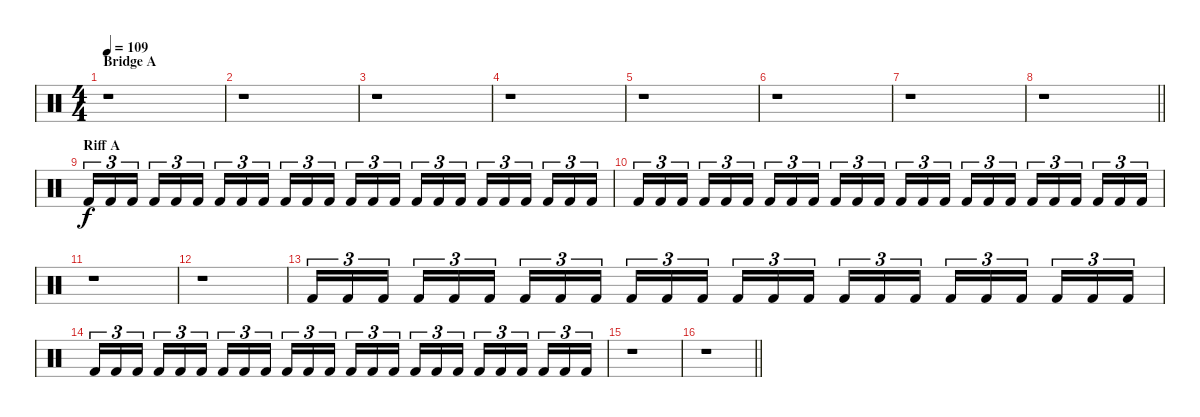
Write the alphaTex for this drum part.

\track "" {instrument percussion}
\staff {score}
\articulation defaults
\ts (4 4)
\section ("" "Bridge A")
\tempo 109
\clef neutral
\ks c
r.1{dy f} |
r.1 |
r.1 |
r.1 |
r.1 |
r.1 |
r.1 |
\barLineRight lightlight
r.1 |
\section ("" "Riff A")
"Kick (hit) 2".16{tu (3 2)} "Kick (hit) 2".16{tu (3 2)} "Kick (hit) 2".16{tu (3 2) beam splitsecondary} "Kick (hit) 2".16{tu (3 2)} "Kick (hit) 2".16{tu (3 2)} "Kick (hit) 2".16{tu (3 2)} "Kick (hit) 2".16{tu (3 2)} "Kick (hit) 2".16{tu (3 2)} "Kick (hit) 2".16{tu (3 2) beam splitsecondary} "Kick (hit) 2".16{tu (3 2)} "Kick (hit) 2".16{tu (3 2)} "Kick (hit) 2".16{tu (3 2)} "Kick (hit) 2".16{tu (3 2)} "Kick (hit) 2".16{tu (3 2)} "Kick (hit) 2".16{tu (3 2) beam splitsecondary} "Kick (hit) 2".16{tu (3 2)} "Kick (hit) 2".16{tu (3 2)} "Kick (hit) 2".16{tu (3 2)} "Kick (hit) 2".16{tu (3 2)} "Kick (hit) 2".16{tu (3 2)} "Kick (hit) 2".16{tu (3 2) beam splitsecondary} "Kick (hit) 2".16{tu (3 2)} "Kick (hit) 2".16{tu (3 2)} "Kick (hit) 2".16{tu (3 2)} |
"Kick (hit) 2".16{tu (3 2)} "Kick (hit) 2".16{tu (3 2)} "Kick (hit) 2".16{tu (3 2) beam splitsecondary} "Kick (hit) 2".16{tu (3 2)} "Kick (hit) 2".16{tu (3 2)} "Kick (hit) 2".16{tu (3 2)} "Kick (hit) 2".16{tu (3 2)} "Kick (hit) 2".16{tu (3 2)} "Kick (hit) 2".16{tu (3 2) beam splitsecondary} "Kick (hit) 2".16{tu (3 2)} "Kick (hit) 2".16{tu (3 2)} "Kick (hit) 2".16{tu (3 2)} "Kick (hit) 2".16{tu (3 2)} "Kick (hit) 2".16{tu (3 2)} "Kick (hit) 2".16{tu (3 2) beam splitsecondary} "Kick (hit) 2".16{tu (3 2)} "Kick (hit) 2".16{tu (3 2)} "Kick (hit) 2".16{tu (3 2)} "Kick (hit) 2".16{tu (3 2)} "Kick (hit) 2".16{tu (3 2)} "Kick (hit) 2".16{tu (3 2) beam splitsecondary} "Kick (hit) 2".16{tu (3 2)} "Kick (hit) 2".16{tu (3 2)} "Kick (hit) 2".16{tu (3 2)} |
r.1 |
r.1 |
"Kick (hit) 2".16{tu (3 2)} "Kick (hit) 2".16{tu (3 2)} "Kick (hit) 2".16{tu (3 2) beam splitsecondary} "Kick (hit) 2".16{tu (3 2)} "Kick (hit) 2".16{tu (3 2)} "Kick (hit) 2".16{tu (3 2)} "Kick (hit) 2".16{tu (3 2)} "Kick (hit) 2".16{tu (3 2)} "Kick (hit) 2".16{tu (3 2) beam splitsecondary} "Kick (hit) 2".16{tu (3 2)} "Kick (hit) 2".16{tu (3 2)} "Kick (hit) 2".16{tu (3 2)} "Kick (hit) 2".16{tu (3 2)} "Kick (hit) 2".16{tu (3 2)} "Kick (hit) 2".16{tu (3 2) beam splitsecondary} "Kick (hit) 2".16{tu (3 2)} "Kick (hit) 2".16{tu (3 2)} "Kick (hit) 2".16{tu (3 2)} "Kick (hit) 2".16{tu (3 2)} "Kick (hit) 2".16{tu (3 2)} "Kick (hit) 2".16{tu (3 2) beam splitsecondary} "Kick (hit) 2".16{tu (3 2)} "Kick (hit) 2".16{tu (3 2)} "Kick (hit) 2".16{tu (3 2)} |
"Kick (hit) 2".16{tu (3 2)} "Kick (hit) 2".16{tu (3 2)} "Kick (hit) 2".16{tu (3 2) beam splitsecondary} "Kick (hit) 2".16{tu (3 2)} "Kick (hit) 2".16{tu (3 2)} "Kick (hit) 2".16{tu (3 2)} "Kick (hit) 2".16{tu (3 2)} "Kick (hit) 2".16{tu (3 2)} "Kick (hit) 2".16{tu (3 2) beam splitsecondary} "Kick (hit) 2".16{tu (3 2)} "Kick (hit) 2".16{tu (3 2)} "Kick (hit) 2".16{tu (3 2)} "Kick (hit) 2".16{tu (3 2)} "Kick (hit) 2".16{tu (3 2)} "Kick (hit) 2".16{tu (3 2) beam splitsecondary} "Kick (hit) 2".16{tu (3 2)} "Kick (hit) 2".16{tu (3 2)} "Kick (hit) 2".16{tu (3 2)} "Kick (hit) 2".16{tu (3 2)} "Kick (hit) 2".16{tu (3 2)} "Kick (hit) 2".16{tu (3 2) beam splitsecondary} "Kick (hit) 2".16{tu (3 2)} "Kick (hit) 2".16{tu (3 2)} "Kick (hit) 2".16{tu (3 2)} |
r.1 |
\barLineRight lightlight
r.1
